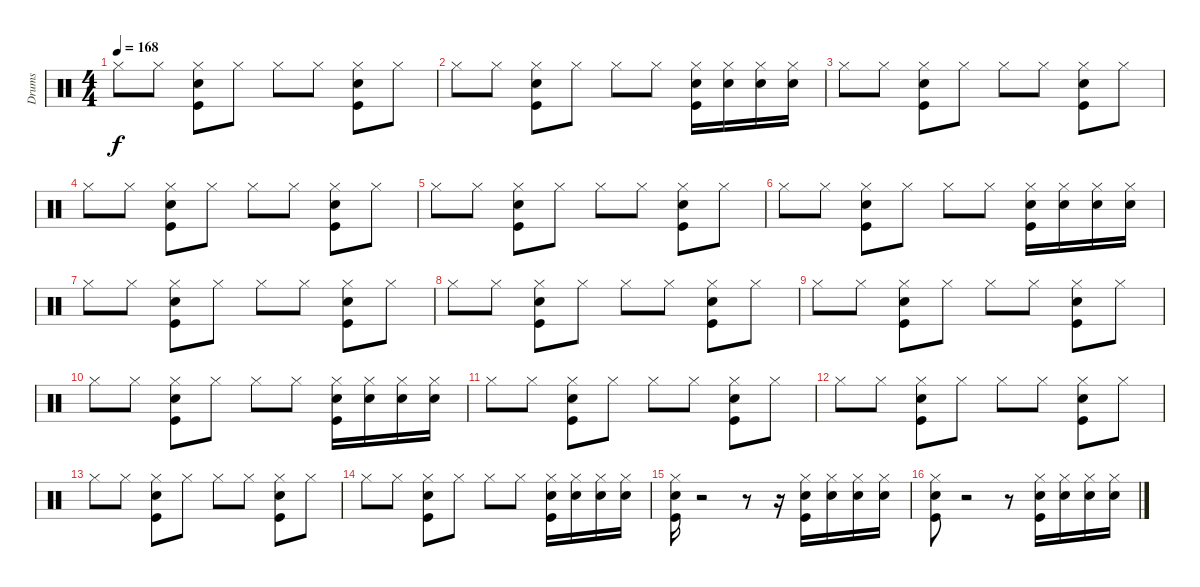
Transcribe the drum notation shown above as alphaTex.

\track ("Drums" "Drums") {instrument percussion}
\staff {score}
\articulation defaults
\ts (4 4)
\tempo 168
\clef neutral
\ks c "Hi-Hat (closed)".8{dy f} "Hi-Hat (closed)".8
("Snare (hit) 2" "Kick (hit)" "Hi-Hat (closed)").8 "Hi-Hat (closed)".8 "Hi-Hat (closed)".8 "Hi-Hat (closed)".8 ("Snare (hit) 2" "Kick (hit)" "Hi-Hat (closed)").8 "Hi-Hat (closed)".8 |
"Hi-Hat (closed)".8 "Hi-Hat (closed)".8 ("Snare (hit) 2" "Kick (hit)" "Hi-Hat (closed)").8 "Hi-Hat (closed)".8 "Hi-Hat (closed)".8 "Hi-Hat (closed)".8 ("Snare (hit) 2" "Kick (hit)" "Hi-Hat (closed)").16 ("Hi-Hat (closed)" "Snare (hit) 2").16 ("Hi-Hat (closed)" "Snare (hit) 2").16 ("Snare (hit) 2" "Hi-Hat (closed)").16 |
"Hi-Hat (closed)".8 "Hi-Hat (closed)".8 ("Snare (hit) 2" "Kick (hit)" "Hi-Hat (closed)").8 "Hi-Hat (closed)".8 "Hi-Hat (closed)".8 "Hi-Hat (closed)".8 ("Snare (hit) 2" "Kick (hit)" "Hi-Hat (closed)").8 "Hi-Hat (closed)".8 |
"Hi-Hat (closed)".8 "Hi-Hat (closed)".8 ("Snare (hit) 2" "Kick (hit)" "Hi-Hat (closed)").8 "Hi-Hat (closed)".8 "Hi-Hat (closed)".8 "Hi-Hat (closed)".8 ("Snare (hit) 2" "Kick (hit)" "Hi-Hat (closed)").8 "Hi-Hat (closed)".8 |
"Hi-Hat (closed)".8 "Hi-Hat (closed)".8 ("Snare (hit) 2" "Kick (hit)" "Hi-Hat (closed)").8 "Hi-Hat (closed)".8 "Hi-Hat (closed)".8 "Hi-Hat (closed)".8 ("Snare (hit) 2" "Kick (hit)" "Hi-Hat (closed)").8 "Hi-Hat (closed)".8 |
"Hi-Hat (closed)".8 "Hi-Hat (closed)".8 ("Snare (hit) 2" "Kick (hit)" "Hi-Hat (closed)").8 "Hi-Hat (closed)".8 "Hi-Hat (closed)".8 "Hi-Hat (closed)".8 ("Snare (hit) 2" "Kick (hit)" "Hi-Hat (closed)").16 ("Hi-Hat (closed)" "Snare (hit) 2").16 ("Hi-Hat (closed)" "Snare (hit) 2").16 ("Snare (hit) 2" "Hi-Hat (closed)").16 |
"Hi-Hat (closed)".8 "Hi-Hat (closed)".8 ("Snare (hit) 2" "Kick (hit)" "Hi-Hat (closed)").8 "Hi-Hat (closed)".8 "Hi-Hat (closed)".8 "Hi-Hat (closed)".8 ("Snare (hit) 2" "Kick (hit)" "Hi-Hat (closed)").8 "Hi-Hat (closed)".8 |
"Hi-Hat (closed)".8 "Hi-Hat (closed)".8 ("Snare (hit) 2" "Kick (hit)" "Hi-Hat (closed)").8 "Hi-Hat (closed)".8 "Hi-Hat (closed)".8 "Hi-Hat (closed)".8 ("Snare (hit) 2" "Kick (hit)" "Hi-Hat (closed)").8 "Hi-Hat (closed)".8 |
"Hi-Hat (closed)".8 "Hi-Hat (closed)".8 ("Snare (hit) 2" "Kick (hit)" "Hi-Hat (closed)").8 "Hi-Hat (closed)".8 "Hi-Hat (closed)".8 "Hi-Hat (closed)".8 ("Snare (hit) 2" "Kick (hit)" "Hi-Hat (closed)").8 "Hi-Hat (closed)".8 |
"Hi-Hat (closed)".8 "Hi-Hat (closed)".8 ("Snare (hit) 2" "Kick (hit)" "Hi-Hat (closed)").8 "Hi-Hat (closed)".8 "Hi-Hat (closed)".8 "Hi-Hat (closed)".8 ("Snare (hit) 2" "Kick (hit)" "Hi-Hat (closed)").16 ("Hi-Hat (closed)" "Snare (hit) 2").16 ("Hi-Hat (closed)" "Snare (hit) 2").16 ("Snare (hit) 2" "Hi-Hat (closed)").16 |
"Hi-Hat (closed)".8 "Hi-Hat (closed)".8 ("Snare (hit) 2" "Kick (hit)" "Hi-Hat (closed)").8 "Hi-Hat (closed)".8 "Hi-Hat (closed)".8 "Hi-Hat (closed)".8 ("Snare (hit) 2" "Kick (hit)" "Hi-Hat (closed)").8 "Hi-Hat (closed)".8 |
"Hi-Hat (closed)".8 "Hi-Hat (closed)".8 ("Snare (hit) 2" "Kick (hit)" "Hi-Hat (closed)").8 "Hi-Hat (closed)".8 "Hi-Hat (closed)".8 "Hi-Hat (closed)".8 ("Snare (hit) 2" "Kick (hit)" "Hi-Hat (closed)").8 "Hi-Hat (closed)".8 |
"Hi-Hat (closed)".8 "Hi-Hat (closed)".8 ("Snare (hit) 2" "Kick (hit)" "Hi-Hat (closed)").8 "Hi-Hat (closed)".8 "Hi-Hat (closed)".8 "Hi-Hat (closed)".8 ("Snare (hit) 2" "Kick (hit)" "Hi-Hat (closed)").8 "Hi-Hat (closed)".8 |
"Hi-Hat (closed)".8 "Hi-Hat (closed)".8 ("Snare (hit) 2" "Kick (hit)" "Hi-Hat (closed)").8 "Hi-Hat (closed)".8 "Hi-Hat (closed)".8 "Hi-Hat (closed)".8 ("Snare (hit) 2" "Kick (hit)" "Hi-Hat (closed)").16 ("Hi-Hat (closed)" "Snare (hit) 2").16 ("Hi-Hat (closed)" "Snare (hit) 2").16 ("Snare (hit) 2" "Hi-Hat (closed)").16 |
("Snare (hit) 2" "Kick (hit)" "Hi-Hat (closed)").16 r.2 r.8 r.16 ("Snare (hit) 2" "Kick (hit)" "Hi-Hat (closed)").16 ("Hi-Hat (closed)" "Snare (hit) 2").16 ("Hi-Hat (closed)" "Snare (hit) 2").16 ("Hi-Hat (closed)" "Snare (hit) 2").16 |
("Snare (hit) 2" "Kick (hit)" "Hi-Hat (closed)").8 r.2 r.8 ("Snare (hit) 2" "Kick (hit)" "Hi-Hat (closed)").16 ("Hi-Hat (closed)" "Snare (hit) 2").16 ("Hi-Hat (closed)" "Snare (hit) 2").16 ("Hi-Hat (closed)" "Snare (hit) 2").16
